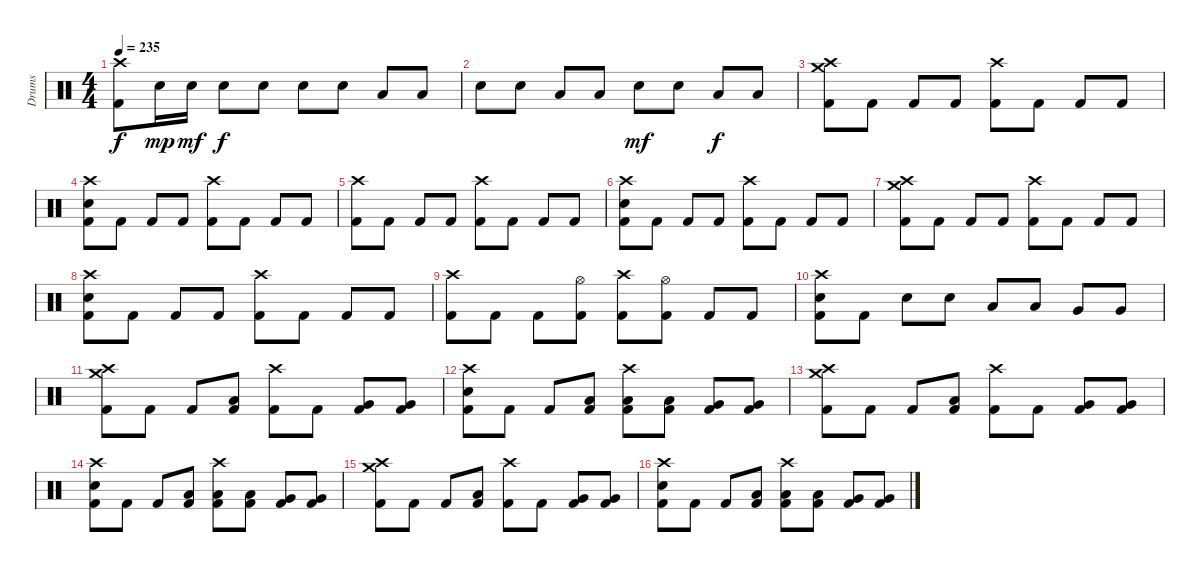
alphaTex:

\track ("Drums" "Drums") {instrument percussion}
\staff {score}
\articulation defaults
\ts (4 4)
\tempo 235
\clef neutral
\ks c
("Crash high (hit)" "Kick (hit) 2").8{dy f} "Electric Snare (hit)".16{dy mp} "Electric Snare (hit)".16{dy mf} "Electric Snare (hit)".8{dy f} "Electric Snare (hit)".8 "Electric Snare (hit)".8 "Electric Snare (hit)".8 "Low Tom (hit)".8 "Low Tom (hit)".8 |
"Electric Snare (hit)".8 "Electric Snare (hit)".8 "Low Tom (hit)".8 "Low Tom (hit)".8 "Electric Snare (hit)".8{dy mf} "Electric Snare (hit)".8 "Low Floor Tom (hit)".8{dy f} "Low Floor Tom (hit)".8 |
("Crash high (hit)" "Crash medium (hit)" "Kick (hit) 2").8 "Kick (hit) 2".8 "Kick (hit) 2".8 "Kick (hit) 2".8 ("Crash high (hit)" "Kick (hit) 2").8 "Kick (hit) 2".8 "Kick (hit) 2".8 "Kick (hit) 2".8 |
("Crash high (hit)" "Electric Snare (hit)" "Kick (hit) 2").8 "Kick (hit) 2".8 "Kick (hit) 2".8 "Kick (hit) 2".8 ("Crash high (hit)" "Kick (hit) 2").8 "Kick (hit) 2".8 "Kick (hit) 2".8 "Kick (hit) 2".8 |
("Crash high (hit)" "Kick (hit) 2").8 "Kick (hit) 2".8 "Kick (hit) 2".8 "Kick (hit) 2".8 ("Crash high (hit)" "Kick (hit) 2").8 "Kick (hit) 2".8 "Kick (hit) 2".8 "Kick (hit) 2".8 |
("Crash high (hit)" "Electric Snare (hit)" "Kick (hit) 2").8 "Kick (hit) 2".8 "Kick (hit) 2".8 "Kick (hit) 2".8 ("Crash high (hit)" "Kick (hit) 2").8 "Kick (hit) 2".8 "Kick (hit) 2".8 "Kick (hit) 2".8 |
("Crash high (hit)" "Crash medium (hit)" "Kick (hit) 2").8 "Kick (hit) 2".8 "Kick (hit) 2".8 "Kick (hit) 2".8 ("Crash high (hit)" "Kick (hit) 2").8 "Kick (hit) 2".8 "Kick (hit) 2".8 "Kick (hit) 2".8 |
("Crash high (hit)" "Electric Snare (hit)" "Kick (hit) 2").8 "Kick (hit) 2".8 "Kick (hit) 2".8 "Kick (hit) 2".8 ("Crash high (hit)" "Kick (hit) 2").8 "Kick (hit) 2".8 "Kick (hit) 2".8 "Kick (hit) 2".8 |
("Crash high (hit)" "Kick (hit) 2").8 "Kick (hit) 2".8 "Kick (hit) 2".8 ("Hi-Hat (open)" "Kick (hit) 2").8 ("Crash high (hit)" "Kick (hit) 2").8 ("Hi-Hat (open)" "Kick (hit) 2").8 "Kick (hit) 2".8 "Kick (hit) 2".8 |
("Crash high (hit)" "Electric Snare (hit)" "Kick (hit) 2").8 "Kick (hit) 2".8 "Electric Snare (hit)".8 "Electric Snare (hit)".8 "Low Tom (hit)".8 "Low Tom (hit)".8 "Very Low Tom (hit)".8 "Very Low Tom (hit)".8 |
("Crash high (hit)" "Crash medium (hit)" "Kick (hit) 2").8 "Kick (hit) 2".8 "Kick (hit) 2".8 ("Low Tom (hit)" "Kick (hit) 2").8 ("Crash high (hit)" "Kick (hit) 2").8 "Kick (hit) 2".8 ("Very Low Tom (hit)" "Kick (hit) 2").8 ("Very Low Tom (hit)" "Kick (hit) 2").8 |
("Crash high (hit)" "Electric Snare (hit)" "Kick (hit) 2").8 "Kick (hit) 2".8 "Kick (hit) 2".8 ("Low Tom (hit)" "Kick (hit) 2").8 ("Crash high (hit)" "Low Tom (hit)" "Kick (hit) 2").8 ("Low Tom (hit)" "Kick (hit) 2").8 ("Very Low Tom (hit)" "Kick (hit) 2").8 ("Very Low Tom (hit)" "Kick (hit) 2").8 |
("Crash high (hit)" "Crash medium (hit)" "Kick (hit) 2").8 "Kick (hit) 2".8 "Kick (hit) 2".8 ("Low Tom (hit)" "Kick (hit) 2").8 ("Crash high (hit)" "Kick (hit) 2").8 "Kick (hit) 2".8 ("Very Low Tom (hit)" "Kick (hit) 2").8 ("Very Low Tom (hit)" "Kick (hit) 2").8 |
("Crash high (hit)" "Electric Snare (hit)" "Kick (hit) 2").8 "Kick (hit) 2".8 "Kick (hit) 2".8 ("Low Tom (hit)" "Kick (hit) 2").8 ("Crash high (hit)" "Low Tom (hit)" "Kick (hit) 2").8 ("Low Tom (hit)" "Kick (hit) 2").8 ("Very Low Tom (hit)" "Kick (hit) 2").8 ("Very Low Tom (hit)" "Kick (hit) 2").8 |
("Crash high (hit)" "Crash medium (hit)" "Kick (hit) 2").8 "Kick (hit) 2".8 "Kick (hit) 2".8 ("Low Tom (hit)" "Kick (hit) 2").8 ("Crash high (hit)" "Kick (hit) 2").8 "Kick (hit) 2".8 ("Very Low Tom (hit)" "Kick (hit) 2").8 ("Very Low Tom (hit)" "Kick (hit) 2").8 |
("Crash high (hit)" "Electric Snare (hit)" "Kick (hit) 2").8 "Kick (hit) 2".8 "Kick (hit) 2".8 ("Low Tom (hit)" "Kick (hit) 2").8 ("Crash high (hit)" "Low Tom (hit)" "Kick (hit) 2").8 ("Low Tom (hit)" "Kick (hit) 2").8 ("Very Low Tom (hit)" "Kick (hit) 2").8 ("Very Low Tom (hit)" "Kick (hit) 2").8
